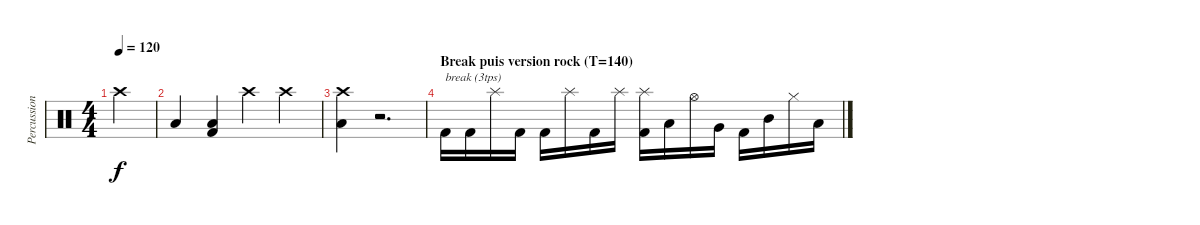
\track ("Percussions" "Percussion") {instrument percussion}
\staff {score}
\articulation defaults
\ts (4 4)
\tempo 120
\clef neutral
\ks c "Crash high (hit)".4{dy f}
|
"Low Tom (hit)".4 ("Low Tom (hit)" "Kick (hit) 2").4 "Crash high (hit)".4 "Crash high (hit)".4 |
("Crash high (hit)" "Low Tom (hit)").4 r.2{d} |
\section ("" "Break puis version rock (T=140)")
"Kick (hit) 2".16{txt "break (3tps)"} "Kick (hit) 2".16 "Splash (hit)".16 "Kick (hit) 2".16 "Kick (hit) 2".16 "Splash (hit)".16 "Kick (hit) 2".16 "Splash (hit)".16 ("Splash (hit)" "Kick (hit) 2").16 "Low Tom (hit)".16 "Hi-Hat (open)".16 "Very Low Tom (hit)".16 "Kick (hit) 2".16 "Mid Tom (hit)".16 "Hi-Hat (closed)".16 "Low Floor Tom (hit)".16
